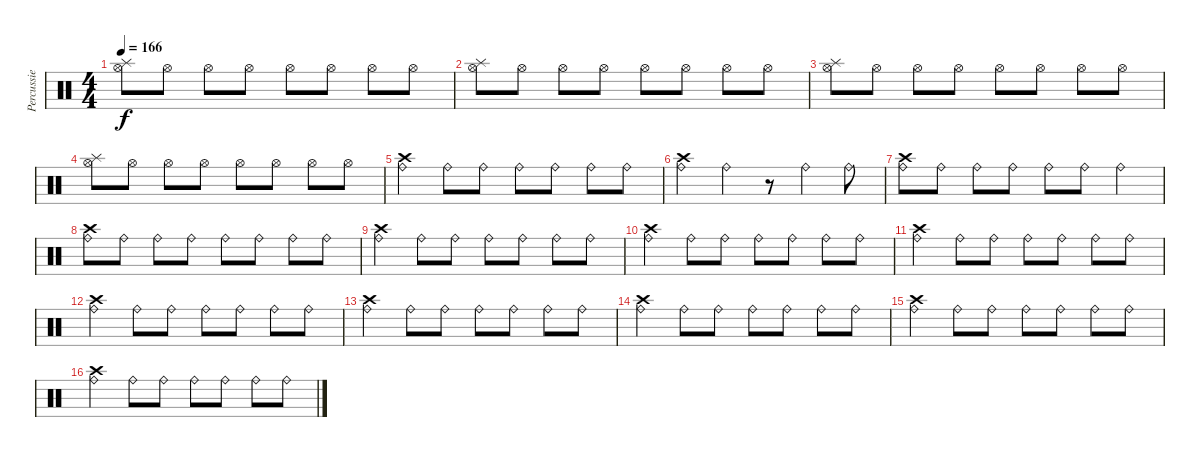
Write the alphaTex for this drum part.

\track ("Percussie" "Percussie") {instrument percussion}
\staff {score}
\articulation defaults
\ts (4 4)
\tempo 166
\clef neutral
\ks c
("Hi-Hat (open)" "Splash (hit)").8{dy f} "Hi-Hat (open)".8 "Hi-Hat (open)".8 "Hi-Hat (open)".8 "Hi-Hat (open)".8 "Hi-Hat (open)".8 "Hi-Hat (open)".8 "Hi-Hat (open)".8 |
("Hi-Hat (open)" "Splash (hit)").8 "Hi-Hat (open)".8 "Hi-Hat (open)".8 "Hi-Hat (open)".8 "Hi-Hat (open)".8 "Hi-Hat (open)".8 "Hi-Hat (open)".8 "Hi-Hat (open)".8 |
("Hi-Hat (open)" "Splash (hit)").8 "Hi-Hat (open)".8 "Hi-Hat (open)".8 "Hi-Hat (open)".8 "Hi-Hat (open)".8 "Hi-Hat (open)".8 "Hi-Hat (open)".8 "Hi-Hat (open)".8 |
("Hi-Hat (open)" "Splash (hit)").8 "Hi-Hat (open)".8 "Hi-Hat (open)".8 "Hi-Hat (open)".8 "Hi-Hat (open)".8 "Hi-Hat (open)".8 "Hi-Hat (open)".8 "Hi-Hat (open)".8 |
("Crash high (hit)" "Ride (bell)").4 "Ride (bell)".8 "Ride (bell)".8 "Ride (bell)".8 "Ride (bell)".8 "Ride (bell)".8 "Ride (bell)".8 |
("Crash high (hit)" "Ride (bell)").4 "Ride (bell)".4 r.8 "Ride (bell)".4 "Ride (bell)".8 |
("Crash high (hit)" "Ride (bell)").8 "Ride (bell)".8 "Ride (bell)".8 "Ride (bell)".8 "Ride (bell)".8 "Ride (bell)".8 "Ride (bell)".4 |
("Crash high (hit)" "Ride (bell)").8 "Ride (bell)".8 "Ride (bell)".8 "Ride (bell)".8 "Ride (bell)".8 "Ride (bell)".8 "Ride (bell)".8 "Ride (bell)".8 |
("Crash high (hit)" "Ride (bell)").4 "Ride (bell)".8 "Ride (bell)".8 "Ride (bell)".8 "Ride (bell)".8 "Ride (bell)".8 "Ride (bell)".8 |
("Crash high (hit)" "Ride (bell)").4 "Ride (bell)".8 "Ride (bell)".8 "Ride (bell)".8 "Ride (bell)".8 "Ride (bell)".8 "Ride (bell)".8 |
("Crash high (hit)" "Ride (bell)").4 "Ride (bell)".8 "Ride (bell)".8 "Ride (bell)".8 "Ride (bell)".8 "Ride (bell)".8 "Ride (bell)".8 |
("Crash high (hit)" "Ride (bell)").4 "Ride (bell)".8 "Ride (bell)".8 "Ride (bell)".8 "Ride (bell)".8 "Ride (bell)".8 "Ride (bell)".8 |
("Crash high (hit)" "Ride (bell)").4 "Ride (bell)".8 "Ride (bell)".8 "Ride (bell)".8 "Ride (bell)".8 "Ride (bell)".8 "Ride (bell)".8 |
("Crash high (hit)" "Ride (bell)").4 "Ride (bell)".8 "Ride (bell)".8 "Ride (bell)".8 "Ride (bell)".8 "Ride (bell)".8 "Ride (bell)".8 |
("Crash high (hit)" "Ride (bell)").4 "Ride (bell)".8 "Ride (bell)".8 "Ride (bell)".8 "Ride (bell)".8 "Ride (bell)".8 "Ride (bell)".8 |
("Crash high (hit)" "Ride (bell)").4 "Ride (bell)".8 "Ride (bell)".8 "Ride (bell)".8 "Ride (bell)".8 "Ride (bell)".8 "Ride (bell)".8
